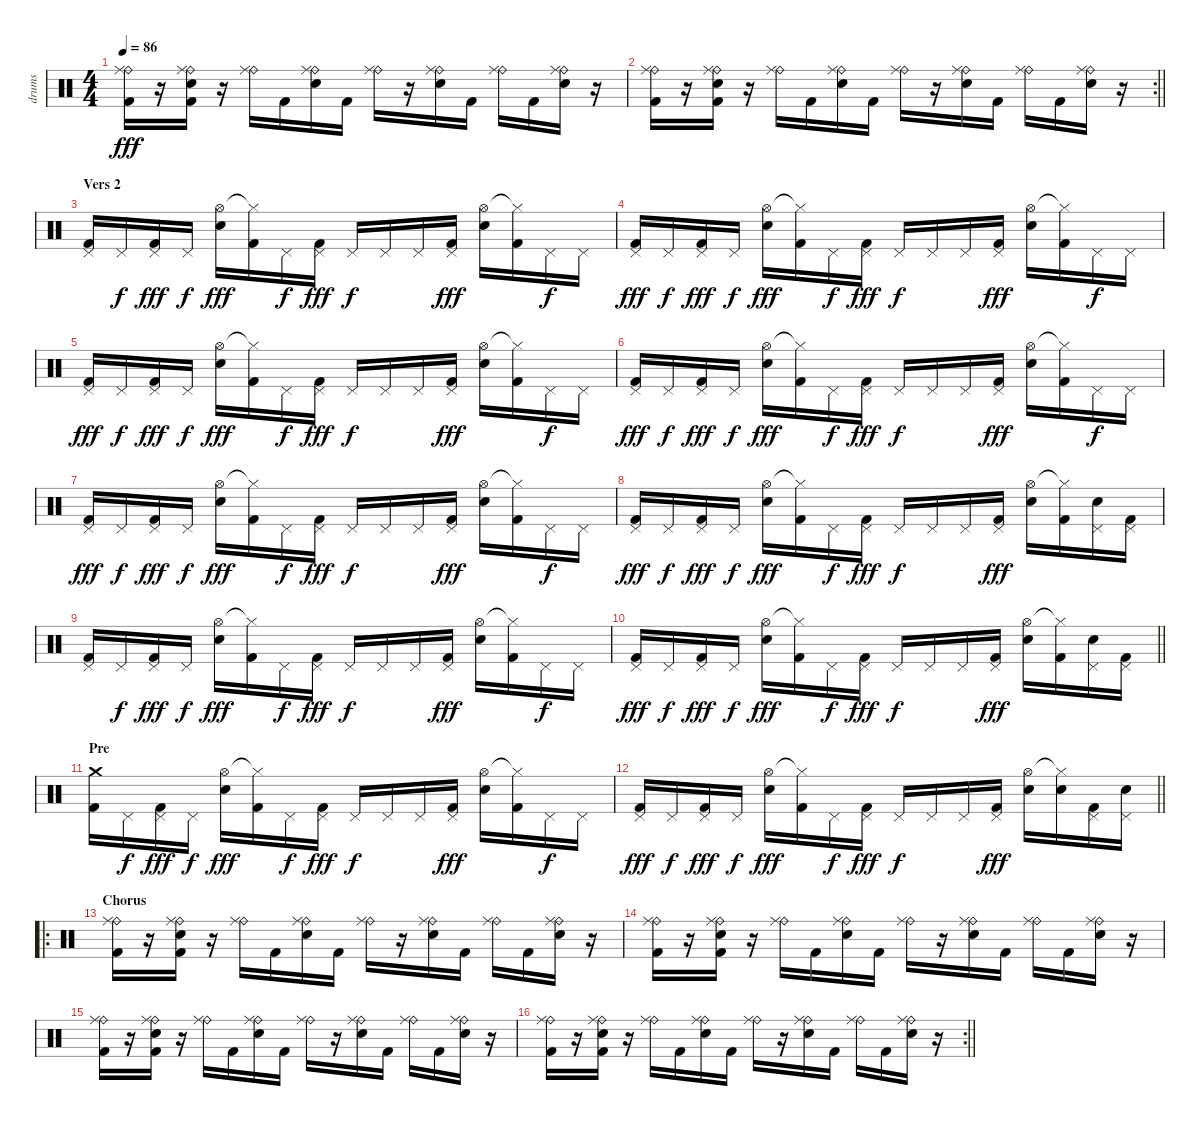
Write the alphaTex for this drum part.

\track ("drums" "drums") {instrument percussion}
\staff {score}
\articulation defaults
\ts (4 4)
\tempo 86
\clef neutral
\ks c
("Ride (bell)" "Ride (middle)" "Kick (hit) 2").16{dy fff} r.16 ("Ride (bell)" "Ride (middle)" "Electric Snare (hit)" "Kick (hit) 2").16 r.16 ("Ride (bell)" "Ride (middle)").16 "Kick (hit) 2".16 ("Ride (bell)" "Ride (middle)" "Electric Snare (hit)").16 "Kick (hit) 2".16 ("Ride (bell)" "Ride (middle)").16 r.16 ("Ride (bell)" "Ride (middle)" "Electric Snare (hit)").16 "Kick (hit) 2".16 ("Ride (bell)" "Ride (middle)").16 "Kick (hit) 2".16 ("Ride (bell)" "Ride (middle)" "Electric Snare (hit)").16 r.16 |
\rc 2
\barLineRight lightlight
("Ride (bell)" "Ride (middle)" "Kick (hit) 2").16 r.16 ("Ride (bell)" "Ride (middle)" "Electric Snare (hit)" "Kick (hit) 2").16 r.16 ("Ride (bell)" "Ride (middle)").16 "Kick (hit) 2".16 ("Ride (bell)" "Ride (middle)" "Electric Snare (hit)").16 "Kick (hit) 2".16 ("Ride (bell)" "Ride (middle)").16 r.16 ("Ride (bell)" "Ride (middle)" "Electric Snare (hit)").16 "Kick (hit) 2".16 ("Ride (bell)" "Ride (middle)").16 "Kick (hit) 2".16 ("Ride (bell)" "Ride (middle)" "Electric Snare (hit)").16 r.16 |
\section ("" "Vers 2")
("Pedal Hi-Hat (hit)" "Kick (hit) 2").16 "Pedal Hi-Hat (hit)".16{dy f} ("Pedal Hi-Hat (hit)" "Kick (hit) 2").16{dy fff} "Pedal Hi-Hat (hit)".16{dy f} ("Hi-Hat (open)" "Electric Snare (hit)").16{dy fff} ("Hi-Hat (closed)"{t} "Kick (hit) 2").16 "Pedal Hi-Hat (hit)".16{dy f} ("Pedal Hi-Hat (hit)" "Kick (hit) 2").16{dy fff} "Pedal Hi-Hat (hit)".16{dy f} "Pedal Hi-Hat (hit)".16 "Pedal Hi-Hat (hit)".16 ("Pedal Hi-Hat (hit)" "Kick (hit) 2").16{dy fff} ("Hi-Hat (open)" "Electric Snare (hit)").16 ("Hi-Hat (closed)"{t} "Kick (hit) 2").16 "Pedal Hi-Hat (hit)".16{dy f} "Pedal Hi-Hat (hit)".16 |
("Pedal Hi-Hat (hit)" "Kick (hit) 2").16{dy fff} "Pedal Hi-Hat (hit)".16{dy f} ("Pedal Hi-Hat (hit)" "Kick (hit) 2").16{dy fff} "Pedal Hi-Hat (hit)".16{dy f} ("Hi-Hat (open)" "Electric Snare (hit)").16{dy fff} ("Hi-Hat (closed)"{t} "Kick (hit) 2").16 "Pedal Hi-Hat (hit)".16{dy f} ("Pedal Hi-Hat (hit)" "Kick (hit) 2").16{dy fff} "Pedal Hi-Hat (hit)".16{dy f} "Pedal Hi-Hat (hit)".16 "Pedal Hi-Hat (hit)".16 ("Pedal Hi-Hat (hit)" "Kick (hit) 2").16{dy fff} ("Hi-Hat (open)" "Electric Snare (hit)").16 ("Hi-Hat (closed)"{t} "Kick (hit) 2").16 "Pedal Hi-Hat (hit)".16{dy f} "Pedal Hi-Hat (hit)".16 |
("Pedal Hi-Hat (hit)" "Kick (hit) 2").16{dy fff} "Pedal Hi-Hat (hit)".16{dy f} ("Pedal Hi-Hat (hit)" "Kick (hit) 2").16{dy fff} "Pedal Hi-Hat (hit)".16{dy f} ("Hi-Hat (open)" "Electric Snare (hit)").16{dy fff} ("Hi-Hat (closed)"{t} "Kick (hit) 2").16 "Pedal Hi-Hat (hit)".16{dy f} ("Pedal Hi-Hat (hit)" "Kick (hit) 2").16{dy fff} "Pedal Hi-Hat (hit)".16{dy f} "Pedal Hi-Hat (hit)".16 "Pedal Hi-Hat (hit)".16 ("Pedal Hi-Hat (hit)" "Kick (hit) 2").16{dy fff} ("Hi-Hat (open)" "Electric Snare (hit)").16 ("Hi-Hat (closed)"{t} "Kick (hit) 2").16 "Pedal Hi-Hat (hit)".16{dy f} "Pedal Hi-Hat (hit)".16 |
("Pedal Hi-Hat (hit)" "Kick (hit) 2").16{dy fff} "Pedal Hi-Hat (hit)".16{dy f} ("Pedal Hi-Hat (hit)" "Kick (hit) 2").16{dy fff} "Pedal Hi-Hat (hit)".16{dy f} ("Hi-Hat (open)" "Electric Snare (hit)").16{dy fff} ("Hi-Hat (closed)"{t} "Kick (hit) 2").16 "Pedal Hi-Hat (hit)".16{dy f} ("Pedal Hi-Hat (hit)" "Kick (hit) 2").16{dy fff} "Pedal Hi-Hat (hit)".16{dy f} "Pedal Hi-Hat (hit)".16 "Pedal Hi-Hat (hit)".16 ("Pedal Hi-Hat (hit)" "Kick (hit) 2").16{dy fff} ("Hi-Hat (open)" "Electric Snare (hit)").16 ("Hi-Hat (closed)"{t} "Kick (hit) 2").16 "Pedal Hi-Hat (hit)".16{dy f} "Pedal Hi-Hat (hit)".16 |
("Pedal Hi-Hat (hit)" "Kick (hit) 2").16{dy fff} "Pedal Hi-Hat (hit)".16{dy f} ("Pedal Hi-Hat (hit)" "Kick (hit) 2").16{dy fff} "Pedal Hi-Hat (hit)".16{dy f} ("Hi-Hat (open)" "Electric Snare (hit)").16{dy fff} ("Hi-Hat (closed)"{t} "Kick (hit) 2").16 "Pedal Hi-Hat (hit)".16{dy f} ("Pedal Hi-Hat (hit)" "Kick (hit) 2").16{dy fff} "Pedal Hi-Hat (hit)".16{dy f} "Pedal Hi-Hat (hit)".16 "Pedal Hi-Hat (hit)".16 ("Pedal Hi-Hat (hit)" "Kick (hit) 2").16{dy fff} ("Hi-Hat (open)" "Electric Snare (hit)").16 ("Hi-Hat (closed)"{t} "Kick (hit) 2").16 "Pedal Hi-Hat (hit)".16{dy f} "Pedal Hi-Hat (hit)".16 |
("Pedal Hi-Hat (hit)" "Kick (hit) 2").16{dy fff} "Pedal Hi-Hat (hit)".16{dy f} ("Pedal Hi-Hat (hit)" "Kick (hit) 2").16{dy fff} "Pedal Hi-Hat (hit)".16{dy f} ("Hi-Hat (open)" "Electric Snare (hit)").16{dy fff} ("Hi-Hat (closed)"{t} "Kick (hit) 2").16 "Pedal Hi-Hat (hit)".16{dy f} ("Pedal Hi-Hat (hit)" "Kick (hit) 2").16{dy fff} "Pedal Hi-Hat (hit)".16{dy f} "Pedal Hi-Hat (hit)".16 "Pedal Hi-Hat (hit)".16 ("Pedal Hi-Hat (hit)" "Kick (hit) 2").16{dy fff} ("Hi-Hat (open)" "Electric Snare (hit)").16 ("Hi-Hat (closed)"{t} "Kick (hit) 2").16 ("Pedal Hi-Hat (hit)" "Electric Snare (hit)").16 ("Pedal Hi-Hat (hit)" "Kick (hit) 2").16 |
("Pedal Hi-Hat (hit)" "Kick (hit) 2").16 "Pedal Hi-Hat (hit)".16{dy f} ("Pedal Hi-Hat (hit)" "Kick (hit) 2").16{dy fff} "Pedal Hi-Hat (hit)".16{dy f} ("Hi-Hat (open)" "Electric Snare (hit)").16{dy fff} ("Hi-Hat (closed)"{t} "Kick (hit) 2").16 "Pedal Hi-Hat (hit)".16{dy f} ("Pedal Hi-Hat (hit)" "Kick (hit) 2").16{dy fff} "Pedal Hi-Hat (hit)".16{dy f} "Pedal Hi-Hat (hit)".16 "Pedal Hi-Hat (hit)".16 ("Pedal Hi-Hat (hit)" "Kick (hit) 2").16{dy fff} ("Hi-Hat (open)" "Electric Snare (hit)").16 ("Hi-Hat (closed)"{t} "Kick (hit) 2").16 "Pedal Hi-Hat (hit)".16{dy f} "Pedal Hi-Hat (hit)".16 |
\barLineRight lightlight
("Pedal Hi-Hat (hit)" "Kick (hit) 2").16{dy fff} "Pedal Hi-Hat (hit)".16{dy f} ("Pedal Hi-Hat (hit)" "Kick (hit) 2").16{dy fff} "Pedal Hi-Hat (hit)".16{dy f} ("Hi-Hat (open)" "Electric Snare (hit)").16{dy fff} ("Hi-Hat (closed)"{t} "Kick (hit) 2").16 "Pedal Hi-Hat (hit)".16{dy f} ("Pedal Hi-Hat (hit)" "Kick (hit) 2").16{dy fff} "Pedal Hi-Hat (hit)".16{dy f} "Pedal Hi-Hat (hit)".16 "Pedal Hi-Hat (hit)".16 ("Pedal Hi-Hat (hit)" "Kick (hit) 2").16{dy fff} ("Hi-Hat (open)" "Electric Snare (hit)").16 ("Hi-Hat (closed)"{t} "Kick (hit) 2").16 ("Pedal Hi-Hat (hit)" "Electric Snare (hit)").16 ("Pedal Hi-Hat (hit)" "Kick (hit) 2").16 |
\section ("" "Pre")
("Crash medium (hit)" "Kick (hit) 2").16 "Pedal Hi-Hat (hit)".16{dy f} ("Pedal Hi-Hat (hit)" "Kick (hit) 2").16{dy fff} "Pedal Hi-Hat (hit)".16{dy f} ("Hi-Hat (open)" "Electric Snare (hit)").16{dy fff} ("Hi-Hat (closed)"{t} "Kick (hit) 2").16 "Pedal Hi-Hat (hit)".16{dy f} ("Pedal Hi-Hat (hit)" "Kick (hit) 2").16{dy fff} "Pedal Hi-Hat (hit)".16{dy f} "Pedal Hi-Hat (hit)".16 "Pedal Hi-Hat (hit)".16 ("Pedal Hi-Hat (hit)" "Kick (hit) 2").16{dy fff} ("Hi-Hat (open)" "Electric Snare (hit)").16 ("Hi-Hat (closed)"{t} "Kick (hit) 2").16 "Pedal Hi-Hat (hit)".16{dy f} "Pedal Hi-Hat (hit)".16 |
\barLineRight lightlight
("Pedal Hi-Hat (hit)" "Kick (hit) 2").16{dy fff} "Pedal Hi-Hat (hit)".16{dy f} ("Pedal Hi-Hat (hit)" "Kick (hit) 2").16{dy fff} "Pedal Hi-Hat (hit)".16{dy f} ("Hi-Hat (open)" "Electric Snare (hit)").16{dy fff} ("Hi-Hat (closed)"{t} "Kick (hit) 2").16 "Pedal Hi-Hat (hit)".16{dy f} ("Pedal Hi-Hat (hit)" "Kick (hit) 2").16{dy fff} "Pedal Hi-Hat (hit)".16{dy f} "Pedal Hi-Hat (hit)".16 "Pedal Hi-Hat (hit)".16 ("Pedal Hi-Hat (hit)" "Kick (hit) 2").16{dy fff} ("Hi-Hat (open)" "Electric Snare (hit)").16 ("Hi-Hat (closed)"{t} "Electric Snare (hit)").16 ("Pedal Hi-Hat (hit)" "Kick (hit) 2").16 ("Pedal Hi-Hat (hit)" "Electric Snare (hit)").16 |
\ro
\section ("" "Chorus")
("Ride (bell)" "Ride (middle)" "Kick (hit) 2").16 r.16 ("Ride (bell)" "Ride (middle)" "Electric Snare (hit)" "Kick (hit) 2").16 r.16 ("Ride (bell)" "Ride (middle)").16 "Kick (hit) 2".16 ("Ride (bell)" "Ride (middle)" "Electric Snare (hit)").16 "Kick (hit) 2".16 ("Ride (bell)" "Ride (middle)").16 r.16 ("Ride (bell)" "Ride (middle)" "Electric Snare (hit)").16 "Kick (hit) 2".16 ("Ride (bell)" "Ride (middle)").16 "Kick (hit) 2".16 ("Ride (bell)" "Ride (middle)" "Electric Snare (hit)").16 r.16 |
("Ride (bell)" "Ride (middle)" "Kick (hit) 2").16 r.16 ("Ride (bell)" "Ride (middle)" "Electric Snare (hit)" "Kick (hit) 2").16 r.16 ("Ride (bell)" "Ride (middle)").16 "Kick (hit) 2".16 ("Ride (bell)" "Ride (middle)" "Electric Snare (hit)").16 "Kick (hit) 2".16 ("Ride (bell)" "Ride (middle)").16 r.16 ("Ride (bell)" "Ride (middle)" "Electric Snare (hit)").16 "Kick (hit) 2".16 ("Ride (bell)" "Ride (middle)").16 "Kick (hit) 2".16 ("Ride (bell)" "Ride (middle)" "Electric Snare (hit)").16 r.16 |
("Ride (bell)" "Ride (middle)" "Kick (hit) 2").16 r.16 ("Ride (bell)" "Ride (middle)" "Electric Snare (hit)" "Kick (hit) 2").16 r.16 ("Ride (bell)" "Ride (middle)").16 "Kick (hit) 2".16 ("Ride (bell)" "Ride (middle)" "Electric Snare (hit)").16 "Kick (hit) 2".16 ("Ride (bell)" "Ride (middle)").16 r.16 ("Ride (bell)" "Ride (middle)" "Electric Snare (hit)").16 "Kick (hit) 2".16 ("Ride (bell)" "Ride (middle)").16 "Kick (hit) 2".16 ("Ride (bell)" "Ride (middle)" "Electric Snare (hit)").16 r.16 |
\rc 2
\barLineRight lightlight
("Ride (bell)" "Ride (middle)" "Kick (hit) 2").16 r.16 ("Ride (bell)" "Ride (middle)" "Electric Snare (hit)" "Kick (hit) 2").16 r.16 ("Ride (bell)" "Ride (middle)").16 "Kick (hit) 2".16 ("Ride (bell)" "Ride (middle)" "Electric Snare (hit)").16 "Kick (hit) 2".16 ("Ride (bell)" "Ride (middle)").16 r.16 ("Ride (bell)" "Ride (middle)" "Electric Snare (hit)").16 "Kick (hit) 2".16 ("Ride (bell)" "Ride (middle)").16 "Kick (hit) 2".16 ("Ride (bell)" "Ride (middle)" "Electric Snare (hit)").16 r.16
